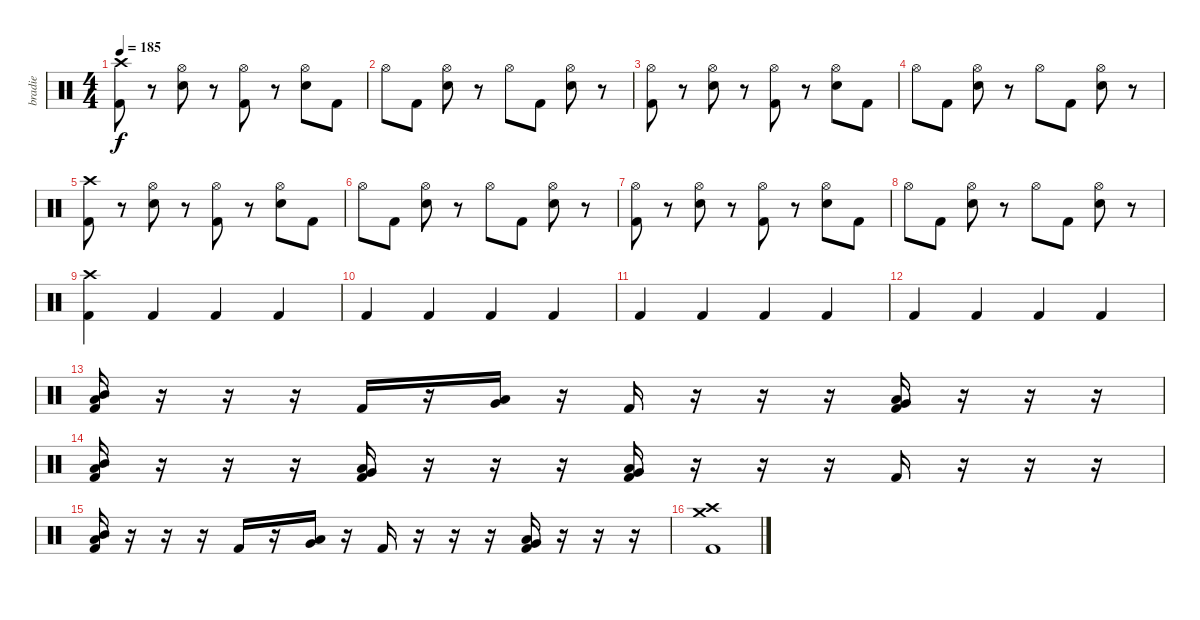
\track ("bradie" "bradie") {instrument percussion}
\staff {score}
\articulation defaults
\ts (4 4)
\tempo 185
\clef neutral
\ks c
("Crash high (hit)" "Kick (hit) 2").8{dy f} r.8 ("Hi-Hat (open)" "Electric Snare (hit)").8 r.8 ("Hi-Hat (open)" "Kick (hit) 2").8 r.8 ("Hi-Hat (open)" "Electric Snare (hit)").8 "Kick (hit) 2".8 |
"Hi-Hat (open)".8 "Kick (hit) 2".8 ("Hi-Hat (open)" "Electric Snare (hit)").8 r.8 "Hi-Hat (open)".8 "Kick (hit) 2".8 ("Hi-Hat (open)" "Electric Snare (hit)").8 r.8 |
("Hi-Hat (open)" "Kick (hit) 2").8 r.8 ("Hi-Hat (open)" "Electric Snare (hit)").8 r.8 ("Hi-Hat (open)" "Kick (hit) 2").8 r.8 ("Hi-Hat (open)" "Electric Snare (hit)").8 "Kick (hit) 2".8 |
"Hi-Hat (open)".8 "Kick (hit) 2".8 ("Hi-Hat (open)" "Electric Snare (hit)").8 r.8 "Hi-Hat (open)".8 "Kick (hit) 2".8 ("Hi-Hat (open)" "Electric Snare (hit)").8 r.8 |
("Crash high (hit)" "Kick (hit) 2").8 r.8 ("Hi-Hat (open)" "Electric Snare (hit)").8 r.8 ("Hi-Hat (open)" "Kick (hit) 2").8 r.8 ("Hi-Hat (open)" "Electric Snare (hit)").8 "Kick (hit) 2".8 |
"Hi-Hat (open)".8 "Kick (hit) 2".8 ("Hi-Hat (open)" "Electric Snare (hit)").8 r.8 "Hi-Hat (open)".8 "Kick (hit) 2".8 ("Hi-Hat (open)" "Electric Snare (hit)").8 r.8 |
("Hi-Hat (open)" "Kick (hit) 2").8 r.8 ("Hi-Hat (open)" "Electric Snare (hit)").8 r.8 ("Hi-Hat (open)" "Kick (hit) 2").8 r.8 ("Hi-Hat (open)" "Electric Snare (hit)").8 "Kick (hit) 2".8 |
"Hi-Hat (open)".8 "Kick (hit) 2".8 ("Hi-Hat (open)" "Electric Snare (hit)").8 r.8 "Hi-Hat (open)".8 "Kick (hit) 2".8 ("Hi-Hat (open)" "Electric Snare (hit)").8 r.8 |
("Crash high (hit)" "Kick (hit) 2").4 "Kick (hit) 2".4 "Kick (hit) 2".4 "Kick (hit) 2".4 |
"Kick (hit) 2".4 "Kick (hit) 2".4 "Kick (hit) 2".4 "Kick (hit) 2".4 |
"Kick (hit) 2".4 "Kick (hit) 2".4 "Kick (hit) 2".4 "Kick (hit) 2".4 |
"Kick (hit) 2".4 "Kick (hit) 2".4 "Kick (hit) 2".4 "Kick (hit) 2".4 |
("Mid Tom (hit)" "Low Tom (hit)" "Kick (hit) 2").16 r.16 r.16 r.16 "Kick (hit) 2".16 r.16 ("Low Tom (hit)" "Very Low Tom (hit)").16 r.16 "Kick (hit) 2".16 r.16 r.16 r.16 ("Very Low Tom (hit)" "Low Floor Tom (hit)" "Kick (hit) 2").16 r.16 r.16 r.16 |
("Mid Tom (hit)" "Low Tom (hit)" "Kick (hit) 2").16 r.16 r.16 r.16 ("Low Tom (hit)" "Very Low Tom (hit)" "Kick (hit) 2").16 r.16 r.16 r.16 ("Very Low Tom (hit)" "Low Floor Tom (hit)" "Kick (hit) 2").16 r.16 r.16 r.16 "Kick (hit) 2".16 r.16 r.16 r.16 |
("Mid Tom (hit)" "Low Tom (hit)" "Kick (hit) 2").16 r.16 r.16 r.16 "Kick (hit) 2".16 r.16 ("Low Tom (hit)" "Very Low Tom (hit)").16 r.16 "Kick (hit) 2".16 r.16 r.16 r.16 ("Very Low Tom (hit)" "Low Floor Tom (hit)" "Kick (hit) 2").16 r.16 r.16 r.16 |
("Crash high (hit)" "Crash medium (hit)" "Kick (hit) 2").1
